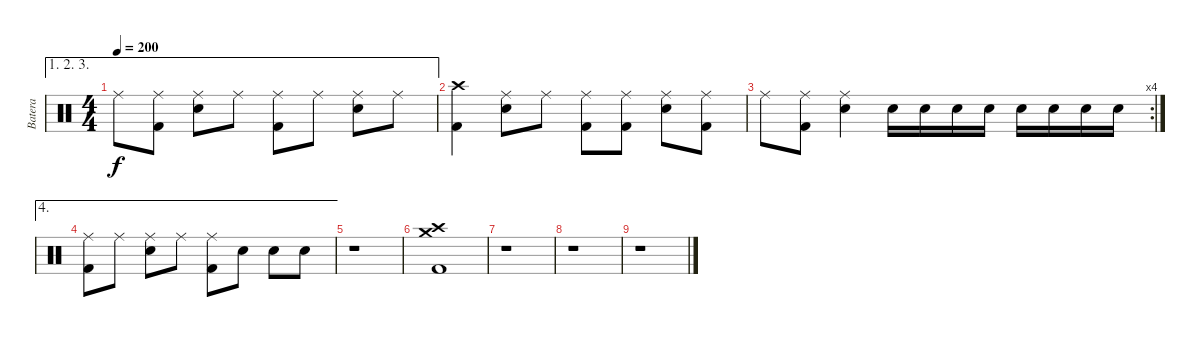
\track ("Batera" "Batera") {instrument percussion}
\staff {score}
\articulation defaults
\ae (1 2 3)
\ts (4 4)
\tempo 200
\clef neutral
\ks c "Ride (middle)".8{dy f}
("Ride (middle)" "Kick (hit) 2").8 ("Ride (middle)" "Electric Snare (hit)").8 "Ride (middle)".8 ("Ride (middle)" "Kick (hit) 2").8 "Ride (middle)".8 ("Ride (middle)" "Electric Snare (hit)").8 "Ride (middle)".8 |
("Crash high (hit)" "Kick (hit) 2").4 ("Ride (middle)" "Electric Snare (hit)").8 "Ride (middle)".8 ("Ride (middle)" "Kick (hit) 2").8 ("Ride (middle)" "Kick (hit) 2").8 ("Ride (middle)" "Electric Snare (hit)").8 ("Ride (middle)" "Kick (hit) 2").8 |
\rc 4 "Ride (middle)".8
("Ride (middle)" "Kick (hit) 2").8 ("Ride (middle)" "Electric Snare (hit)").4 "Electric Snare (hit)".16 "Electric Snare (hit)".16 "Electric Snare (hit)".16 "Electric Snare (hit)".16 "Electric Snare (hit)".16 "Electric Snare (hit)".16 "Electric Snare (hit)".16 "Electric Snare (hit)".16 |
\ae 4
("Ride (middle)" "Kick (hit) 2").8 "Ride (middle)".8 ("Ride (middle)" "Electric Snare (hit)").8 "Ride (middle)".8 ("Ride (middle)" "Kick (hit) 2").8 "Electric Snare (hit)".8 "Electric Snare (hit)".8 "Electric Snare (hit)".8 |
r.1 |
("Crash high (hit)" "Crash medium (hit)" "Kick (hit) 2").1 |
r.1 |
r.1 |
r.1
